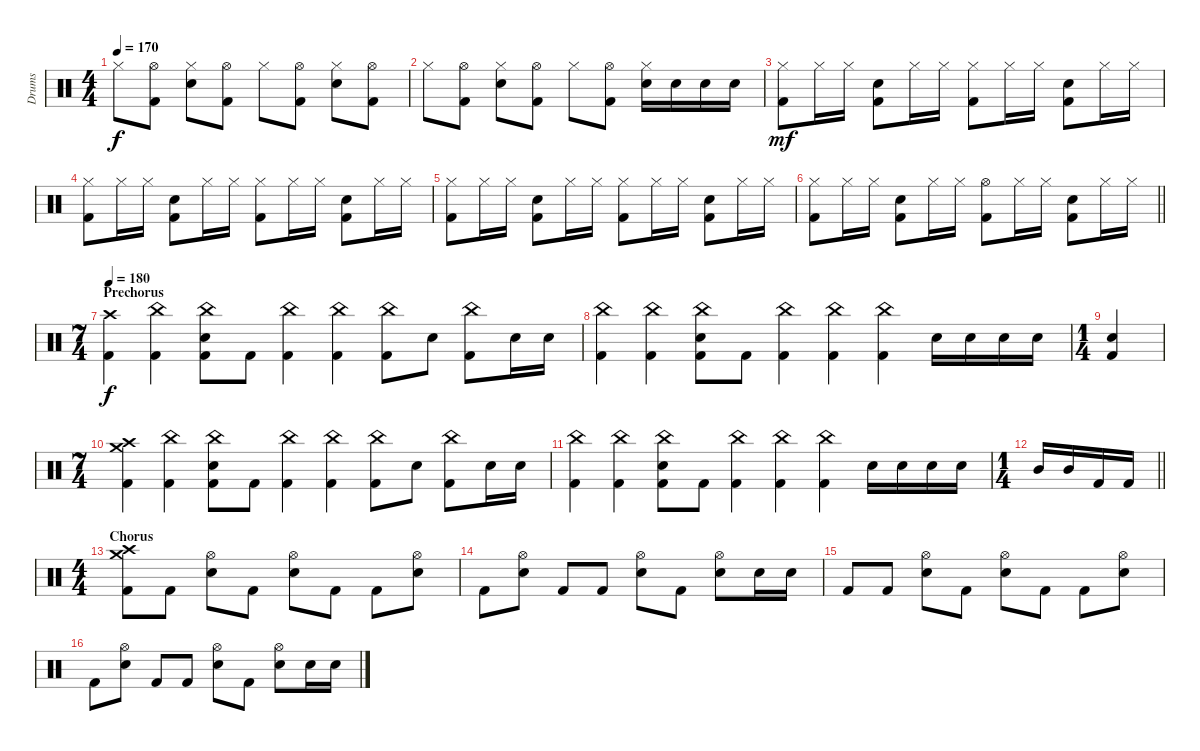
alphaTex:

\track ("Drums" "Drums") {instrument percussion}
\staff {score}
\articulation defaults
\ts (4 4)
\tempo 170
\clef neutral
\ks c "Hi-Hat (closed)".8{dy f}
("Hi-Hat (open)" "Kick (hit) 2").8 ("Hi-Hat (closed)" "Electric Snare (hit)").8 ("Hi-Hat (open)" "Kick (hit) 2").8 "Hi-Hat (closed)".8 ("Hi-Hat (open)" "Kick (hit) 2").8 ("Hi-Hat (closed)" "Electric Snare (hit)").8 ("Hi-Hat (open)" "Kick (hit) 2").8 |
"Hi-Hat (closed)".8 ("Hi-Hat (open)" "Kick (hit) 2").8 ("Hi-Hat (closed)" "Electric Snare (hit)").8 ("Hi-Hat (open)" "Kick (hit) 2").8 "Hi-Hat (closed)".8 ("Hi-Hat (open)" "Kick (hit) 2").8 ("Hi-Hat (closed)" "Electric Snare (hit)").16 "Electric Snare (hit)".16 "Electric Snare (hit)".16 "Electric Snare (hit)".16 |
("Hi-Hat (closed)" "Kick (hit) 2").8{dy mf} "Hi-Hat (closed)".16 "Hi-Hat (closed)".16 ("Electric Snare (hit)" "Kick (hit) 2").8 "Hi-Hat (closed)".16 "Hi-Hat (closed)".16 ("Hi-Hat (closed)" "Kick (hit) 2").8 "Hi-Hat (closed)".16 "Hi-Hat (closed)".16 ("Electric Snare (hit)" "Kick (hit) 2").8 "Hi-Hat (closed)".16 "Hi-Hat (closed)".16 |
("Hi-Hat (closed)" "Kick (hit) 2").8 "Hi-Hat (closed)".16 "Hi-Hat (closed)".16 ("Electric Snare (hit)" "Kick (hit) 2").8 "Hi-Hat (closed)".16 "Hi-Hat (closed)".16 ("Hi-Hat (closed)" "Kick (hit) 2").8 "Hi-Hat (closed)".16 "Hi-Hat (closed)".16 ("Electric Snare (hit)" "Kick (hit) 2").8 "Hi-Hat (closed)".16 "Hi-Hat (closed)".16 |
("Hi-Hat (closed)" "Kick (hit) 2").8 "Hi-Hat (closed)".16 "Hi-Hat (closed)".16 ("Electric Snare (hit)" "Kick (hit) 2").8 "Hi-Hat (closed)".16 "Hi-Hat (closed)".16 ("Hi-Hat (closed)" "Kick (hit) 2").8 "Hi-Hat (closed)".16 "Hi-Hat (closed)".16 ("Electric Snare (hit)" "Kick (hit) 2").8 "Hi-Hat (closed)".16 "Hi-Hat (closed)".16 |
\barLineRight lightlight
("Hi-Hat (closed)" "Kick (hit) 2").8 "Hi-Hat (closed)".16 "Hi-Hat (closed)".16 ("Electric Snare (hit)" "Kick (hit) 2").8 "Hi-Hat (closed)".16 "Hi-Hat (closed)".16 ("Hi-Hat (open)" "Kick (hit) 2").8 "Hi-Hat (closed)".16 "Hi-Hat (closed)".16 ("Electric Snare (hit)" "Kick (hit) 2").8 "Hi-Hat (closed)".16 "Hi-Hat (closed)".16 |
\ts (7 4)
\section ("" "Prechorus")
\tempo 180
("Crash high (hit)" "Kick (hit) 2").4{dy f} ("China (hit)" "Kick (hit) 2").4 ("China (hit)" "Electric Snare (hit)" "Kick (hit) 2").8 "Kick (hit) 2".8 ("China (hit)" "Kick (hit) 2").4 ("China (hit)" "Kick (hit) 2").4 ("China (hit)" "Kick (hit) 2").8 "Electric Snare (hit)".8 ("China (hit)" "Kick (hit) 2").8 "Electric Snare (hit)".16 "Electric Snare (hit)".16 |
("China (hit)" "Kick (hit) 2").4 ("China (hit)" "Kick (hit) 2").4 ("China (hit)" "Electric Snare (hit)" "Kick (hit) 2").8 "Kick (hit) 2".8 ("China (hit)" "Kick (hit) 2").4 ("China (hit)" "Kick (hit) 2").4 ("China (hit)" "Kick (hit) 2").4 "Electric Snare (hit)".16 "Electric Snare (hit)".16 "Electric Snare (hit)".16 "Electric Snare (hit)".16 |
\ts (1 4)
("Electric Snare (hit)" "Kick (hit) 2").4 |
\ts (7 4)
("Crash high (hit)" "Crash medium (hit)" "Kick (hit) 2").4 ("China (hit)" "Kick (hit) 2").4 ("China (hit)" "Electric Snare (hit)" "Kick (hit) 2").8 "Kick (hit) 2".8 ("China (hit)" "Kick (hit) 2").4 ("China (hit)" "Kick (hit) 2").4 ("China (hit)" "Kick (hit) 2").8 "Electric Snare (hit)".8 ("China (hit)" "Kick (hit) 2").8 "Electric Snare (hit)".16 "Electric Snare (hit)".16 |
("China (hit)" "Kick (hit) 2").4 ("China (hit)" "Kick (hit) 2").4 ("China (hit)" "Electric Snare (hit)" "Kick (hit) 2").8 "Kick (hit) 2".8 ("China (hit)" "Kick (hit) 2").4 ("China (hit)" "Kick (hit) 2").4 ("China (hit)" "Kick (hit) 2").4 "Electric Snare (hit)".16 "Electric Snare (hit)".16 "Electric Snare (hit)".16 "Electric Snare (hit)".16 |
\ts (1 4)
\barLineRight lightlight "Mid Tom (hit)".16 "Mid Tom (hit)".16 "Kick (hit) 2".16 "Kick (hit) 2".16
|
\ts (4 4)
\section ("" "Chorus")
("Crash high (hit)" "Crash medium (hit)" "Kick (hit) 2").8 "Kick (hit) 2".8 ("Hi-Hat (open)" "Electric Snare (hit)").8 "Kick (hit) 2".8 ("Hi-Hat (open)" "Electric Snare (hit)").8 "Kick (hit) 2".8 "Kick (hit) 2".8 ("Hi-Hat (open)" "Electric Snare (hit)").8 |
"Kick (hit) 2".8 ("Hi-Hat (open)" "Electric Snare (hit)").8 "Kick (hit) 2".8 "Kick (hit) 2".8 ("Hi-Hat (open)" "Electric Snare (hit)").8 "Kick (hit) 2".8 ("Hi-Hat (open)" "Electric Snare (hit)").8 "Electric Snare (hit)".16 "Electric Snare (hit)".16 |
"Kick (hit) 2".8 "Kick (hit) 2".8 ("Hi-Hat (open)" "Electric Snare (hit)").8 "Kick (hit) 2".8 ("Hi-Hat (open)" "Electric Snare (hit)").8 "Kick (hit) 2".8 "Kick (hit) 2".8 ("Hi-Hat (open)" "Electric Snare (hit)").8 |
"Kick (hit) 2".8 ("Hi-Hat (open)" "Electric Snare (hit)").8 "Kick (hit) 2".8 "Kick (hit) 2".8 ("Hi-Hat (open)" "Electric Snare (hit)").8 "Kick (hit) 2".8 ("Hi-Hat (open)" "Electric Snare (hit)").8 "Electric Snare (hit)".16 "Electric Snare (hit)".16
